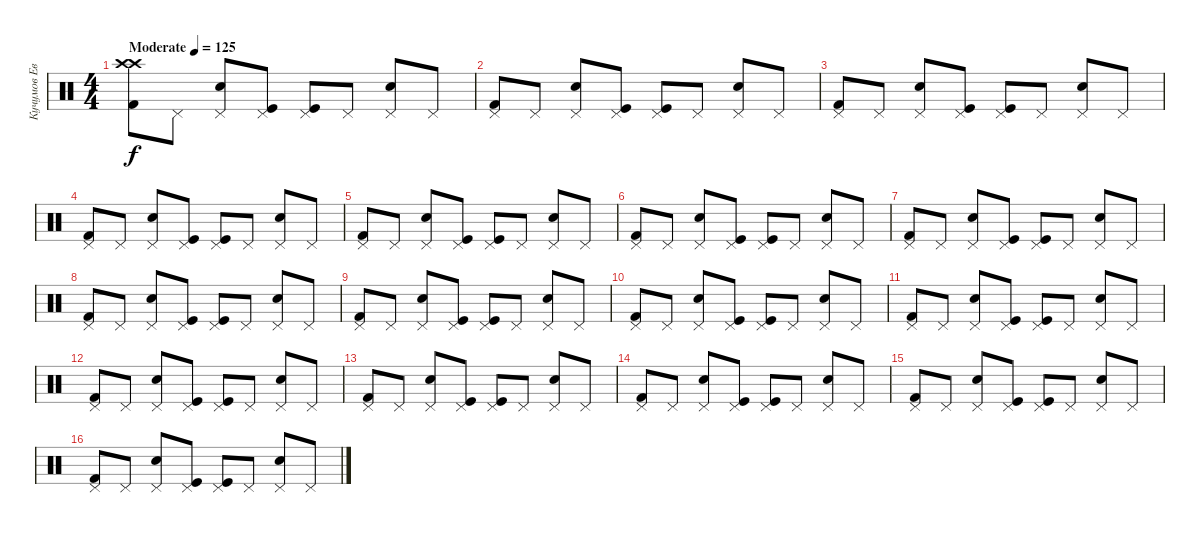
\track ("Кучумов Евгений" "Кучумов Ев") {instrument percussion}
\staff {score}
\articulation defaults
\ts (4 4)
\tempo (125 "Moderate")
\clef neutral
\ks c
("Crash high (hit)" "Kick (hit) 2" "Crash high (hit)").8{dy f} "Pedal Hi-Hat (hit)".8 ("Electric Snare (hit)" "Pedal Hi-Hat (hit)").8 ("Kick (hit)" "Pedal Hi-Hat (hit)").8 ("Kick (hit)" "Pedal Hi-Hat (hit)").8 "Pedal Hi-Hat (hit)".8 ("Electric Snare (hit)" "Pedal Hi-Hat (hit)").8 "Pedal Hi-Hat (hit)".8 |
("Kick (hit) 2" "Pedal Hi-Hat (hit)").8 "Pedal Hi-Hat (hit)".8 ("Electric Snare (hit)" "Pedal Hi-Hat (hit)").8 ("Kick (hit)" "Pedal Hi-Hat (hit)").8 ("Kick (hit)" "Pedal Hi-Hat (hit)").8 "Pedal Hi-Hat (hit)".8 ("Electric Snare (hit)" "Pedal Hi-Hat (hit)").8 "Pedal Hi-Hat (hit)".8 |
("Kick (hit) 2" "Pedal Hi-Hat (hit)").8 "Pedal Hi-Hat (hit)".8 ("Electric Snare (hit)" "Pedal Hi-Hat (hit)").8 ("Kick (hit)" "Pedal Hi-Hat (hit)").8 ("Kick (hit)" "Pedal Hi-Hat (hit)").8 "Pedal Hi-Hat (hit)".8 ("Electric Snare (hit)" "Pedal Hi-Hat (hit)").8 "Pedal Hi-Hat (hit)".8 |
("Kick (hit) 2" "Pedal Hi-Hat (hit)").8 "Pedal Hi-Hat (hit)".8 ("Electric Snare (hit)" "Pedal Hi-Hat (hit)").8 ("Kick (hit)" "Pedal Hi-Hat (hit)").8 ("Kick (hit)" "Pedal Hi-Hat (hit)").8 "Pedal Hi-Hat (hit)".8 ("Electric Snare (hit)" "Pedal Hi-Hat (hit)").8 "Pedal Hi-Hat (hit)".8 |
("Kick (hit) 2" "Pedal Hi-Hat (hit)").8 "Pedal Hi-Hat (hit)".8 ("Electric Snare (hit)" "Pedal Hi-Hat (hit)").8 ("Kick (hit)" "Pedal Hi-Hat (hit)").8 ("Kick (hit)" "Pedal Hi-Hat (hit)").8 "Pedal Hi-Hat (hit)".8 ("Electric Snare (hit)" "Pedal Hi-Hat (hit)").8 "Pedal Hi-Hat (hit)".8 |
("Kick (hit) 2" "Pedal Hi-Hat (hit)").8 "Pedal Hi-Hat (hit)".8 ("Electric Snare (hit)" "Pedal Hi-Hat (hit)").8 ("Kick (hit)" "Pedal Hi-Hat (hit)").8 ("Kick (hit)" "Pedal Hi-Hat (hit)").8 "Pedal Hi-Hat (hit)".8 ("Electric Snare (hit)" "Pedal Hi-Hat (hit)").8 "Pedal Hi-Hat (hit)".8 |
("Kick (hit) 2" "Pedal Hi-Hat (hit)").8 "Pedal Hi-Hat (hit)".8 ("Electric Snare (hit)" "Pedal Hi-Hat (hit)").8 ("Kick (hit)" "Pedal Hi-Hat (hit)").8 ("Kick (hit)" "Pedal Hi-Hat (hit)").8 "Pedal Hi-Hat (hit)".8 ("Electric Snare (hit)" "Pedal Hi-Hat (hit)").8 "Pedal Hi-Hat (hit)".8 |
("Kick (hit) 2" "Pedal Hi-Hat (hit)").8 "Pedal Hi-Hat (hit)".8 ("Electric Snare (hit)" "Pedal Hi-Hat (hit)").8 ("Kick (hit)" "Pedal Hi-Hat (hit)").8 ("Kick (hit)" "Pedal Hi-Hat (hit)").8 "Pedal Hi-Hat (hit)".8 ("Electric Snare (hit)" "Pedal Hi-Hat (hit)").8 "Pedal Hi-Hat (hit)".8 |
("Kick (hit) 2" "Pedal Hi-Hat (hit)").8 "Pedal Hi-Hat (hit)".8 ("Electric Snare (hit)" "Pedal Hi-Hat (hit)").8 ("Kick (hit)" "Pedal Hi-Hat (hit)").8 ("Kick (hit)" "Pedal Hi-Hat (hit)").8 "Pedal Hi-Hat (hit)".8 ("Electric Snare (hit)" "Pedal Hi-Hat (hit)").8 "Pedal Hi-Hat (hit)".8 |
("Kick (hit) 2" "Pedal Hi-Hat (hit)").8 "Pedal Hi-Hat (hit)".8 ("Electric Snare (hit)" "Pedal Hi-Hat (hit)").8 ("Kick (hit)" "Pedal Hi-Hat (hit)").8 ("Kick (hit)" "Pedal Hi-Hat (hit)").8 "Pedal Hi-Hat (hit)".8 ("Electric Snare (hit)" "Pedal Hi-Hat (hit)").8 "Pedal Hi-Hat (hit)".8 |
("Kick (hit) 2" "Pedal Hi-Hat (hit)").8 "Pedal Hi-Hat (hit)".8 ("Electric Snare (hit)" "Pedal Hi-Hat (hit)").8 ("Kick (hit)" "Pedal Hi-Hat (hit)").8 ("Kick (hit)" "Pedal Hi-Hat (hit)").8 "Pedal Hi-Hat (hit)".8 ("Electric Snare (hit)" "Pedal Hi-Hat (hit)").8 "Pedal Hi-Hat (hit)".8 |
("Kick (hit) 2" "Pedal Hi-Hat (hit)").8 "Pedal Hi-Hat (hit)".8 ("Electric Snare (hit)" "Pedal Hi-Hat (hit)").8 ("Kick (hit)" "Pedal Hi-Hat (hit)").8 ("Kick (hit)" "Pedal Hi-Hat (hit)").8 "Pedal Hi-Hat (hit)".8 ("Electric Snare (hit)" "Pedal Hi-Hat (hit)").8 "Pedal Hi-Hat (hit)".8 |
("Kick (hit) 2" "Pedal Hi-Hat (hit)").8 "Pedal Hi-Hat (hit)".8 ("Electric Snare (hit)" "Pedal Hi-Hat (hit)").8 ("Kick (hit)" "Pedal Hi-Hat (hit)").8 ("Kick (hit)" "Pedal Hi-Hat (hit)").8 "Pedal Hi-Hat (hit)".8 ("Electric Snare (hit)" "Pedal Hi-Hat (hit)").8 "Pedal Hi-Hat (hit)".8 |
("Kick (hit) 2" "Pedal Hi-Hat (hit)").8 "Pedal Hi-Hat (hit)".8 ("Electric Snare (hit)" "Pedal Hi-Hat (hit)").8 ("Kick (hit)" "Pedal Hi-Hat (hit)").8 ("Kick (hit)" "Pedal Hi-Hat (hit)").8 "Pedal Hi-Hat (hit)".8 ("Electric Snare (hit)" "Pedal Hi-Hat (hit)").8 "Pedal Hi-Hat (hit)".8 |
("Kick (hit) 2" "Pedal Hi-Hat (hit)").8 "Pedal Hi-Hat (hit)".8 ("Electric Snare (hit)" "Pedal Hi-Hat (hit)").8 ("Kick (hit)" "Pedal Hi-Hat (hit)").8 ("Kick (hit)" "Pedal Hi-Hat (hit)").8 "Pedal Hi-Hat (hit)".8 ("Electric Snare (hit)" "Pedal Hi-Hat (hit)").8 "Pedal Hi-Hat (hit)".8 |
("Kick (hit) 2" "Pedal Hi-Hat (hit)").8 "Pedal Hi-Hat (hit)".8 ("Electric Snare (hit)" "Pedal Hi-Hat (hit)").8 ("Kick (hit)" "Pedal Hi-Hat (hit)").8 ("Kick (hit)" "Pedal Hi-Hat (hit)").8 "Pedal Hi-Hat (hit)".8 ("Electric Snare (hit)" "Pedal Hi-Hat (hit)").8 "Pedal Hi-Hat (hit)".8
